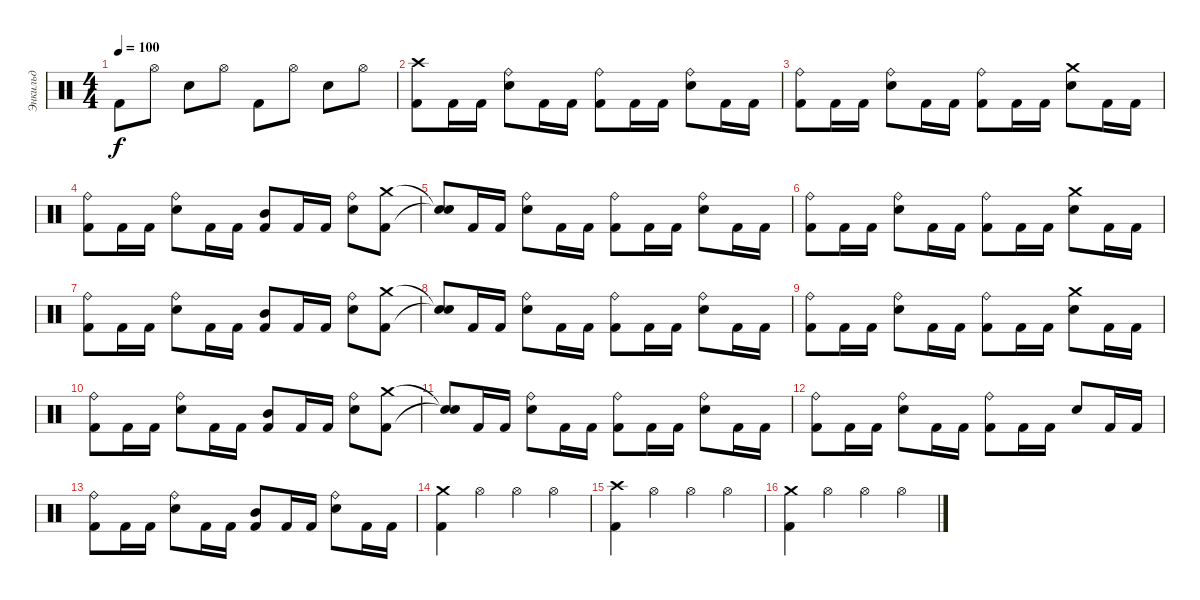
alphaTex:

\track ("Энкильд" "Энкильд") {instrument percussion}
\staff {score}
\articulation defaults
\ts (4 4)
\tempo 100
\clef neutral
\ks c "Kick (hit) 2".8{dy f} "Hi-Hat (open)".8 "Snare (hit) 2".8 "Hi-Hat (open)".8 "Kick (hit) 2".8 "Hi-Hat (open)".8 "Snare (hit) 2".8 "Hi-Hat (open)".8
|
("Kick (hit) 2" "Crash high (hit)").8 "Kick (hit) 2".16 "Kick (hit) 2".16 ("Snare (hit) 2" "Ride (bell)").8 "Kick (hit) 2".16 "Kick (hit) 2".16 ("Kick (hit) 2" "Ride (bell)").8 "Kick (hit) 2".16 "Kick (hit) 2".16 ("Snare (hit) 2" "Ride (bell)").8 "Kick (hit) 2".16 "Kick (hit) 2".16 |
("Ride (bell)" "Kick (hit) 2").8 "Kick (hit) 2".16 "Kick (hit) 2".16 ("Snare (hit) 2" "Ride (bell)").8 "Kick (hit) 2".16 "Kick (hit) 2".16 ("Kick (hit) 2" "Ride (bell)").8 "Kick (hit) 2".16 "Kick (hit) 2".16 ("Snare (hit) 2" "Crash medium (hit)").8 "Kick (hit) 2".16 "Kick (hit) 2".16 |
("Ride (bell)" "Kick (hit) 2").8 "Kick (hit) 2".16 "Kick (hit) 2".16 ("Ride (bell)" "Snare (hit) 2").8 "Kick (hit) 2".16 "Kick (hit) 2".16 ("Mid Tom (hit)" "Kick (hit) 2").8 "Kick (hit) 2".16 "Kick (hit) 2".16 ("Ride (bell)" "Snare (hit) 2").8 ("Crash medium (hit)" "Kick (hit) 2").8 |
("Snare (hit)"{t} "Snare (hit)"{t}).8 "Kick (hit) 2".16 "Kick (hit) 2".16 ("Snare (hit) 2" "Ride (bell)").8 "Kick (hit) 2".16 "Kick (hit) 2".16 ("Kick (hit) 2" "Ride (bell)").8 "Kick (hit) 2".16 "Kick (hit) 2".16 ("Snare (hit) 2" "Ride (bell)").8 "Kick (hit) 2".16 "Kick (hit) 2".16 |
("Ride (bell)" "Kick (hit) 2").8 "Kick (hit) 2".16 "Kick (hit) 2".16 ("Snare (hit) 2" "Ride (bell)").8 "Kick (hit) 2".16 "Kick (hit) 2".16 ("Kick (hit) 2" "Ride (bell)").8 "Kick (hit) 2".16 "Kick (hit) 2".16 ("Snare (hit) 2" "Crash medium (hit)").8 "Kick (hit) 2".16 "Kick (hit) 2".16 |
("Ride (bell)" "Kick (hit) 2").8 "Kick (hit) 2".16 "Kick (hit) 2".16 ("Ride (bell)" "Snare (hit) 2").8 "Kick (hit) 2".16 "Kick (hit) 2".16 ("Mid Tom (hit)" "Kick (hit) 2").8 "Kick (hit) 2".16 "Kick (hit) 2".16 ("Ride (bell)" "Snare (hit) 2").8 ("Crash medium (hit)" "Kick (hit) 2").8 |
("Snare (hit)"{t} "Snare (hit)"{t}).8 "Kick (hit) 2".16 "Kick (hit) 2".16 ("Snare (hit) 2" "Ride (bell)").8 "Kick (hit) 2".16 "Kick (hit) 2".16 ("Kick (hit) 2" "Ride (bell)").8 "Kick (hit) 2".16 "Kick (hit) 2".16 ("Snare (hit) 2" "Ride (bell)").8 "Kick (hit) 2".16 "Kick (hit) 2".16 |
("Ride (bell)" "Kick (hit) 2").8 "Kick (hit) 2".16 "Kick (hit) 2".16 ("Snare (hit) 2" "Ride (bell)").8 "Kick (hit) 2".16 "Kick (hit) 2".16 ("Kick (hit) 2" "Ride (bell)").8 "Kick (hit) 2".16 "Kick (hit) 2".16 ("Snare (hit) 2" "Crash medium (hit)").8 "Kick (hit) 2".16 "Kick (hit) 2".16 |
("Ride (bell)" "Kick (hit) 2").8 "Kick (hit) 2".16 "Kick (hit) 2".16 ("Ride (bell)" "Snare (hit) 2").8 "Kick (hit) 2".16 "Kick (hit) 2".16 ("Mid Tom (hit)" "Kick (hit) 2").8 "Kick (hit) 2".16 "Kick (hit) 2".16 ("Ride (bell)" "Snare (hit) 2").8 ("Crash medium (hit)" "Kick (hit) 2").8 |
("Snare (hit)"{t} "Snare (hit)"{t}).8 "Kick (hit) 2".16 "Kick (hit) 2".16 ("Snare (hit) 2" "Ride (bell)").8 "Kick (hit) 2".16 "Kick (hit) 2".16 ("Kick (hit) 2" "Ride (bell)").8 "Kick (hit) 2".16 "Kick (hit) 2".16 ("Snare (hit) 2" "Ride (bell)").8 "Kick (hit) 2".16 "Kick (hit) 2".16 |
("Ride (bell)" "Kick (hit) 2").8 "Kick (hit) 2".16 "Kick (hit) 2".16 ("Snare (hit) 2" "Ride (bell)").8 "Kick (hit) 2".16 "Kick (hit) 2".16 ("Kick (hit) 2" "Ride (bell)").8 "Kick (hit) 2".16 "Kick (hit) 2".16 "Snare (hit) 2".8 "Kick (hit) 2".16 "Kick (hit) 2".16 |
("Ride (bell)" "Kick (hit) 2").8 "Kick (hit) 2".16 "Kick (hit) 2".16 ("Ride (bell)" "Snare (hit) 2").8 "Kick (hit) 2".16 "Kick (hit) 2".16 ("Mid Tom (hit)" "Kick (hit) 2").8 "Kick (hit) 2".16 "Kick (hit) 2".16 ("Ride (bell)" "Snare (hit) 2").8 "Kick (hit) 2".16 "Kick (hit) 2".16 |
("Kick (hit) 2" "Crash medium (hit)").4 "Hi-Hat (open)".4 "Hi-Hat (open)".4 "Hi-Hat (open)".4 |
("Crash high (hit)" "Kick (hit) 2").4 "Hi-Hat (open)".4 "Hi-Hat (open)".4 "Hi-Hat (open)".4 |
("Crash medium (hit)" "Kick (hit) 2").4 "Hi-Hat (open)".4 "Hi-Hat (open)".4 "Hi-Hat (open)".4
